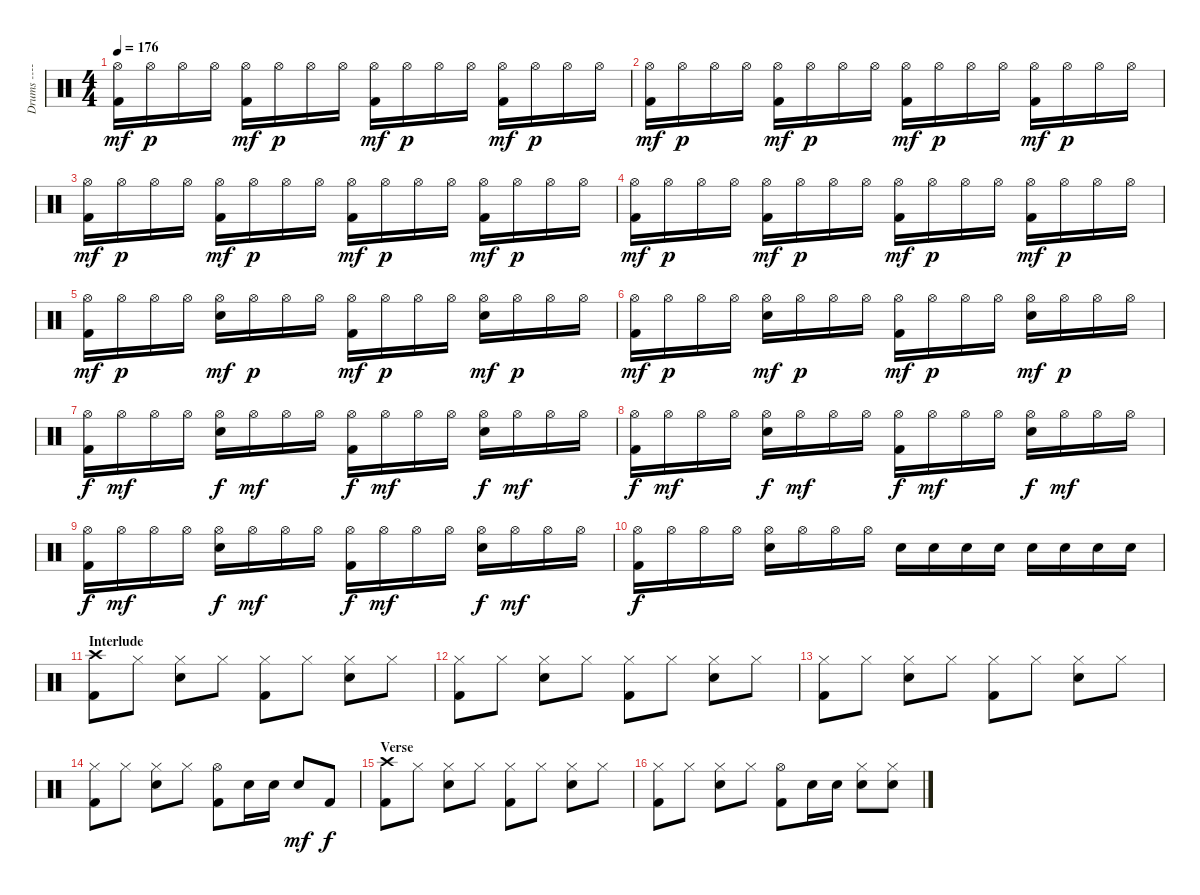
\track ("Drums ----- Larry Mullen Junior" "Drums ----") {instrument percussion}
\staff {score}
\articulation defaults
\ts (4 4)
\tempo 176
\clef neutral
\ks c
("Kick (hit) 2" "Hi-Hat (open)").16{dy mf} "Hi-Hat (open)".16{dy p} "Hi-Hat (open)".16 "Hi-Hat (open)".16 ("Kick (hit) 2" "Hi-Hat (open)").16{dy mf} "Hi-Hat (open)".16{dy p} "Hi-Hat (open)".16 "Hi-Hat (open)".16 ("Kick (hit) 2" "Hi-Hat (open)").16{dy mf} "Hi-Hat (open)".16{dy p} "Hi-Hat (open)".16 "Hi-Hat (open)".16 ("Kick (hit) 2" "Hi-Hat (open)").16{dy mf} "Hi-Hat (open)".16{dy p} "Hi-Hat (open)".16 "Hi-Hat (open)".16 |
("Kick (hit) 2" "Hi-Hat (open)").16{dy mf} "Hi-Hat (open)".16{dy p} "Hi-Hat (open)".16 "Hi-Hat (open)".16 ("Kick (hit) 2" "Hi-Hat (open)").16{dy mf} "Hi-Hat (open)".16{dy p} "Hi-Hat (open)".16 "Hi-Hat (open)".16 ("Kick (hit) 2" "Hi-Hat (open)").16{dy mf} "Hi-Hat (open)".16{dy p} "Hi-Hat (open)".16 "Hi-Hat (open)".16 ("Kick (hit) 2" "Hi-Hat (open)").16{dy mf} "Hi-Hat (open)".16{dy p} "Hi-Hat (open)".16 "Hi-Hat (open)".16 |
("Kick (hit) 2" "Hi-Hat (open)").16{dy mf} "Hi-Hat (open)".16{dy p} "Hi-Hat (open)".16 "Hi-Hat (open)".16 ("Kick (hit) 2" "Hi-Hat (open)").16{dy mf} "Hi-Hat (open)".16{dy p} "Hi-Hat (open)".16 "Hi-Hat (open)".16 ("Kick (hit) 2" "Hi-Hat (open)").16{dy mf} "Hi-Hat (open)".16{dy p} "Hi-Hat (open)".16 "Hi-Hat (open)".16 ("Kick (hit) 2" "Hi-Hat (open)").16{dy mf} "Hi-Hat (open)".16{dy p} "Hi-Hat (open)".16 "Hi-Hat (open)".16 |
("Kick (hit) 2" "Hi-Hat (open)").16{dy mf} "Hi-Hat (open)".16{dy p} "Hi-Hat (open)".16 "Hi-Hat (open)".16 ("Kick (hit) 2" "Hi-Hat (open)").16{dy mf} "Hi-Hat (open)".16{dy p} "Hi-Hat (open)".16 "Hi-Hat (open)".16 ("Kick (hit) 2" "Hi-Hat (open)").16{dy mf} "Hi-Hat (open)".16{dy p} "Hi-Hat (open)".16 "Hi-Hat (open)".16 ("Kick (hit) 2" "Hi-Hat (open)").16{dy mf} "Hi-Hat (open)".16{dy p} "Hi-Hat (open)".16 "Hi-Hat (open)".16 |
("Kick (hit) 2" "Hi-Hat (open)").16{dy mf} "Hi-Hat (open)".16{dy p} "Hi-Hat (open)".16 "Hi-Hat (open)".16 ("Electric Snare (hit)" "Hi-Hat (open)").16{dy mf} "Hi-Hat (open)".16{dy p} "Hi-Hat (open)".16 "Hi-Hat (open)".16 ("Kick (hit) 2" "Hi-Hat (open)").16{dy mf} "Hi-Hat (open)".16{dy p} "Hi-Hat (open)".16 "Hi-Hat (open)".16 ("Electric Snare (hit)" "Hi-Hat (open)").16{dy mf} "Hi-Hat (open)".16{dy p} "Hi-Hat (open)".16 "Hi-Hat (open)".16 |
("Kick (hit) 2" "Hi-Hat (open)").16{dy mf} "Hi-Hat (open)".16{dy p} "Hi-Hat (open)".16 "Hi-Hat (open)".16 ("Electric Snare (hit)" "Hi-Hat (open)").16{dy mf} "Hi-Hat (open)".16{dy p} "Hi-Hat (open)".16 "Hi-Hat (open)".16 ("Kick (hit) 2" "Hi-Hat (open)").16{dy mf} "Hi-Hat (open)".16{dy p} "Hi-Hat (open)".16 "Hi-Hat (open)".16 ("Electric Snare (hit)" "Hi-Hat (open)").16{dy mf} "Hi-Hat (open)".16{dy p} "Hi-Hat (open)".16 "Hi-Hat (open)".16 |
("Kick (hit) 2" "Hi-Hat (open)").16{dy f} "Hi-Hat (open)".16{dy mf} "Hi-Hat (open)".16 "Hi-Hat (open)".16 ("Electric Snare (hit)" "Hi-Hat (open)").16{dy f} "Hi-Hat (open)".16{dy mf} "Hi-Hat (open)".16 "Hi-Hat (open)".16 ("Kick (hit) 2" "Hi-Hat (open)").16{dy f} "Hi-Hat (open)".16{dy mf} "Hi-Hat (open)".16 "Hi-Hat (open)".16 ("Electric Snare (hit)" "Hi-Hat (open)").16{dy f} "Hi-Hat (open)".16{dy mf} "Hi-Hat (open)".16 "Hi-Hat (open)".16 |
("Kick (hit) 2" "Hi-Hat (open)").16{dy f} "Hi-Hat (open)".16{dy mf} "Hi-Hat (open)".16 "Hi-Hat (open)".16 ("Electric Snare (hit)" "Hi-Hat (open)").16{dy f} "Hi-Hat (open)".16{dy mf} "Hi-Hat (open)".16 "Hi-Hat (open)".16 ("Kick (hit) 2" "Hi-Hat (open)").16{dy f} "Hi-Hat (open)".16{dy mf} "Hi-Hat (open)".16 "Hi-Hat (open)".16 ("Electric Snare (hit)" "Hi-Hat (open)").16{dy f} "Hi-Hat (open)".16{dy mf} "Hi-Hat (open)".16 "Hi-Hat (open)".16 |
("Kick (hit) 2" "Hi-Hat (open)").16{dy f} "Hi-Hat (open)".16{dy mf} "Hi-Hat (open)".16 "Hi-Hat (open)".16 ("Electric Snare (hit)" "Hi-Hat (open)").16{dy f} "Hi-Hat (open)".16{dy mf} "Hi-Hat (open)".16 "Hi-Hat (open)".16 ("Kick (hit) 2" "Hi-Hat (open)").16{dy f} "Hi-Hat (open)".16{dy mf} "Hi-Hat (open)".16 "Hi-Hat (open)".16 ("Electric Snare (hit)" "Hi-Hat (open)").16{dy f} "Hi-Hat (open)".16{dy mf} "Hi-Hat (open)".16 "Hi-Hat (open)".16 |
("Kick (hit) 2" "Hi-Hat (open)").16{dy f} "Hi-Hat (open)".16 "Hi-Hat (open)".16 "Hi-Hat (open)".16 ("Electric Snare (hit)" "Hi-Hat (open)").16 "Hi-Hat (open)".16 "Hi-Hat (open)".16 "Hi-Hat (open)".16 "Electric Snare (hit)".16 "Electric Snare (hit)".16 "Electric Snare (hit)".16 "Electric Snare (hit)".16 "Electric Snare (hit)".16 "Electric Snare (hit)".16 "Electric Snare (hit)".16 "Electric Snare (hit)".16 |
\section ("" "Interlude")
("Kick (hit) 2" "Crash high (hit)").8 "Hi-Hat (closed)".8 ("Electric Snare (hit)" "Hi-Hat (closed)").8 "Hi-Hat (closed)".8 ("Kick (hit) 2" "Hi-Hat (closed)").8 "Hi-Hat (closed)".8 ("Electric Snare (hit)" "Hi-Hat (closed)").8 "Hi-Hat (closed)".8 |
("Kick (hit) 2" "Hi-Hat (closed)").8 "Hi-Hat (closed)".8 ("Electric Snare (hit)" "Hi-Hat (closed)").8 "Hi-Hat (closed)".8 ("Kick (hit) 2" "Hi-Hat (closed)").8 "Hi-Hat (closed)".8 ("Electric Snare (hit)" "Hi-Hat (closed)").8 "Hi-Hat (closed)".8 |
("Kick (hit) 2" "Hi-Hat (closed)").8 "Hi-Hat (closed)".8 ("Electric Snare (hit)" "Hi-Hat (closed)").8 "Hi-Hat (closed)".8 ("Kick (hit) 2" "Hi-Hat (closed)").8 "Hi-Hat (closed)".8 ("Electric Snare (hit)" "Hi-Hat (closed)").8 "Hi-Hat (closed)".8 |
("Kick (hit) 2" "Hi-Hat (closed)").8 "Hi-Hat (closed)".8 ("Electric Snare (hit)" "Hi-Hat (closed)").8 "Hi-Hat (closed)".8 ("Kick (hit) 2" "Hi-Hat (open)").8 "Electric Snare (hit)".16 "Electric Snare (hit)".16 "Electric Snare (hit)".8{dy mf} "Kick (hit) 2".8{dy f} |
\section ("" "Verse")
("Kick (hit) 2" "Crash high (hit)").8 "Hi-Hat (closed)".8 ("Electric Snare (hit)" "Hi-Hat (closed)").8 "Hi-Hat (closed)".8 ("Kick (hit) 2" "Hi-Hat (closed)").8 "Hi-Hat (closed)".8 ("Electric Snare (hit)" "Hi-Hat (closed)").8 "Hi-Hat (closed)".8 |
("Kick (hit) 2" "Hi-Hat (closed)").8 "Hi-Hat (closed)".8 ("Electric Snare (hit)" "Hi-Hat (closed)").8 "Hi-Hat (closed)".8 ("Kick (hit) 2" "Hi-Hat (open)").8 "Electric Snare (hit)".16 "Electric Snare (hit)".16 ("Electric Snare (hit)" "Hi-Hat (closed)").8 ("Electric Snare (hit)" "Hi-Hat (closed)").8
